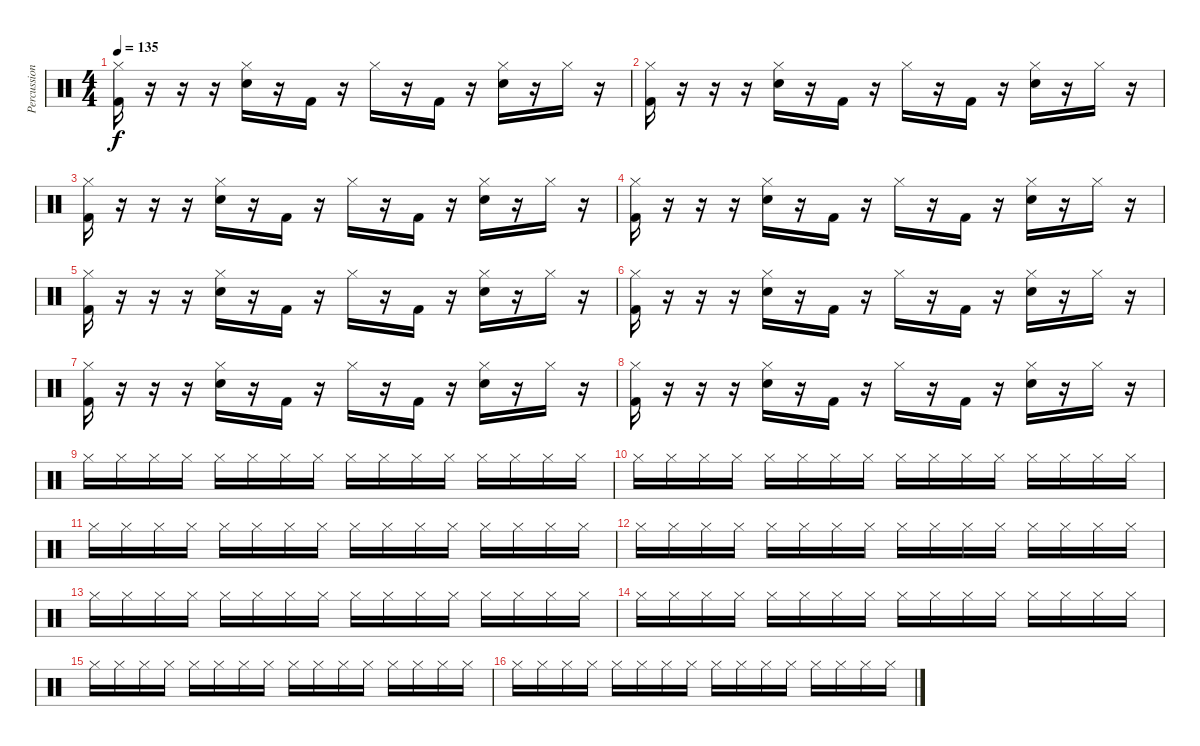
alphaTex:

\track ("Percussion" "Percussion") {instrument percussion}
\staff {score}
\articulation defaults
\ts (4 4)
\tempo 135
\clef neutral
\ks c
("Hi-Hat (closed)" "Kick (hit) 2").16{dy f} r.16 r.16 r.16 ("Hi-Hat (closed)" "Snare (hit) 2").16 r.16 "Kick (hit) 2".16 r.16 "Hi-Hat (closed)".16 r.16 "Kick (hit) 2".16 r.16 ("Hi-Hat (closed)" "Snare (hit) 2").16 r.16 "Hi-Hat (closed)".16 r.16 |
("Hi-Hat (closed)" "Kick (hit) 2").16 r.16 r.16 r.16 ("Hi-Hat (closed)" "Snare (hit) 2").16 r.16 "Kick (hit) 2".16 r.16 "Hi-Hat (closed)".16 r.16 "Kick (hit) 2".16 r.16 ("Hi-Hat (closed)" "Snare (hit) 2").16 r.16 "Hi-Hat (closed)".16 r.16 |
("Hi-Hat (closed)" "Kick (hit) 2").16 r.16 r.16 r.16 ("Hi-Hat (closed)" "Snare (hit) 2").16 r.16 "Kick (hit) 2".16 r.16 "Hi-Hat (closed)".16 r.16 "Kick (hit) 2".16 r.16 ("Hi-Hat (closed)" "Snare (hit) 2").16 r.16 "Hi-Hat (closed)".16 r.16 |
("Hi-Hat (closed)" "Kick (hit) 2").16 r.16 r.16 r.16 ("Hi-Hat (closed)" "Snare (hit) 2").16 r.16 "Kick (hit) 2".16 r.16 "Hi-Hat (closed)".16 r.16 "Kick (hit) 2".16 r.16 ("Hi-Hat (closed)" "Snare (hit) 2").16 r.16 "Hi-Hat (closed)".16 r.16 |
("Hi-Hat (closed)" "Kick (hit) 2").16 r.16 r.16 r.16 ("Hi-Hat (closed)" "Snare (hit) 2").16 r.16 "Kick (hit) 2".16 r.16 "Hi-Hat (closed)".16 r.16 "Kick (hit) 2".16 r.16 ("Hi-Hat (closed)" "Snare (hit) 2").16 r.16 "Hi-Hat (closed)".16 r.16 |
("Hi-Hat (closed)" "Kick (hit) 2").16 r.16 r.16 r.16 ("Hi-Hat (closed)" "Snare (hit) 2").16 r.16 "Kick (hit) 2".16 r.16 "Hi-Hat (closed)".16 r.16 "Kick (hit) 2".16 r.16 ("Hi-Hat (closed)" "Snare (hit) 2").16 r.16 "Hi-Hat (closed)".16 r.16 |
("Hi-Hat (closed)" "Kick (hit) 2").16 r.16 r.16 r.16 ("Hi-Hat (closed)" "Snare (hit) 2").16 r.16 "Kick (hit) 2".16 r.16 "Hi-Hat (closed)".16 r.16 "Kick (hit) 2".16 r.16 ("Hi-Hat (closed)" "Snare (hit) 2").16 r.16 "Hi-Hat (closed)".16 r.16 |
("Hi-Hat (closed)" "Kick (hit) 2").16 r.16 r.16 r.16 ("Hi-Hat (closed)" "Snare (hit) 2").16 r.16 "Kick (hit) 2".16 r.16 "Hi-Hat (closed)".16 r.16 "Kick (hit) 2".16 r.16 ("Hi-Hat (closed)" "Snare (hit) 2").16 r.16 "Hi-Hat (closed)".16 r.16 |
"Hi-Hat (closed)".16 "Hi-Hat (closed)".16 "Hi-Hat (closed)".16 "Hi-Hat (closed)".16 "Hi-Hat (closed)".16 "Hi-Hat (closed)".16 "Hi-Hat (closed)".16 "Hi-Hat (closed)".16 "Hi-Hat (closed)".16 "Hi-Hat (closed)".16 "Hi-Hat (closed)".16 "Hi-Hat (closed)".16 "Hi-Hat (closed)".16 "Hi-Hat (closed)".16 "Hi-Hat (closed)".16 "Hi-Hat (closed)".16 |
"Hi-Hat (closed)".16 "Hi-Hat (closed)".16 "Hi-Hat (closed)".16 "Hi-Hat (closed)".16 "Hi-Hat (closed)".16 "Hi-Hat (closed)".16 "Hi-Hat (closed)".16 "Hi-Hat (closed)".16 "Hi-Hat (closed)".16 "Hi-Hat (closed)".16 "Hi-Hat (closed)".16 "Hi-Hat (closed)".16 "Hi-Hat (closed)".16 "Hi-Hat (closed)".16 "Hi-Hat (closed)".16 "Hi-Hat (closed)".16 |
"Hi-Hat (closed)".16 "Hi-Hat (closed)".16 "Hi-Hat (closed)".16 "Hi-Hat (closed)".16 "Hi-Hat (closed)".16 "Hi-Hat (closed)".16 "Hi-Hat (closed)".16 "Hi-Hat (closed)".16 "Hi-Hat (closed)".16 "Hi-Hat (closed)".16 "Hi-Hat (closed)".16 "Hi-Hat (closed)".16 "Hi-Hat (closed)".16 "Hi-Hat (closed)".16 "Hi-Hat (closed)".16 "Hi-Hat (closed)".16 |
"Hi-Hat (closed)".16 "Hi-Hat (closed)".16 "Hi-Hat (closed)".16 "Hi-Hat (closed)".16 "Hi-Hat (closed)".16 "Hi-Hat (closed)".16 "Hi-Hat (closed)".16 "Hi-Hat (closed)".16 "Hi-Hat (closed)".16 "Hi-Hat (closed)".16 "Hi-Hat (closed)".16 "Hi-Hat (closed)".16 "Hi-Hat (closed)".16 "Hi-Hat (closed)".16 "Hi-Hat (closed)".16 "Hi-Hat (closed)".16 |
"Hi-Hat (closed)".16 "Hi-Hat (closed)".16 "Hi-Hat (closed)".16 "Hi-Hat (closed)".16 "Hi-Hat (closed)".16 "Hi-Hat (closed)".16 "Hi-Hat (closed)".16 "Hi-Hat (closed)".16 "Hi-Hat (closed)".16 "Hi-Hat (closed)".16 "Hi-Hat (closed)".16 "Hi-Hat (closed)".16 "Hi-Hat (closed)".16 "Hi-Hat (closed)".16 "Hi-Hat (closed)".16 "Hi-Hat (closed)".16 |
"Hi-Hat (closed)".16 "Hi-Hat (closed)".16 "Hi-Hat (closed)".16 "Hi-Hat (closed)".16 "Hi-Hat (closed)".16 "Hi-Hat (closed)".16 "Hi-Hat (closed)".16 "Hi-Hat (closed)".16 "Hi-Hat (closed)".16 "Hi-Hat (closed)".16 "Hi-Hat (closed)".16 "Hi-Hat (closed)".16 "Hi-Hat (closed)".16 "Hi-Hat (closed)".16 "Hi-Hat (closed)".16 "Hi-Hat (closed)".16 |
"Hi-Hat (closed)".16 "Hi-Hat (closed)".16 "Hi-Hat (closed)".16 "Hi-Hat (closed)".16 "Hi-Hat (closed)".16 "Hi-Hat (closed)".16 "Hi-Hat (closed)".16 "Hi-Hat (closed)".16 "Hi-Hat (closed)".16 "Hi-Hat (closed)".16 "Hi-Hat (closed)".16 "Hi-Hat (closed)".16 "Hi-Hat (closed)".16 "Hi-Hat (closed)".16 "Hi-Hat (closed)".16 "Hi-Hat (closed)".16 |
"Hi-Hat (closed)".16 "Hi-Hat (closed)".16 "Hi-Hat (closed)".16 "Hi-Hat (closed)".16 "Hi-Hat (closed)".16 "Hi-Hat (closed)".16 "Hi-Hat (closed)".16 "Hi-Hat (closed)".16 "Hi-Hat (closed)".16 "Hi-Hat (closed)".16 "Hi-Hat (closed)".16 "Hi-Hat (closed)".16 "Hi-Hat (closed)".16 "Hi-Hat (closed)".16 "Hi-Hat (closed)".16 "Hi-Hat (closed)".16
